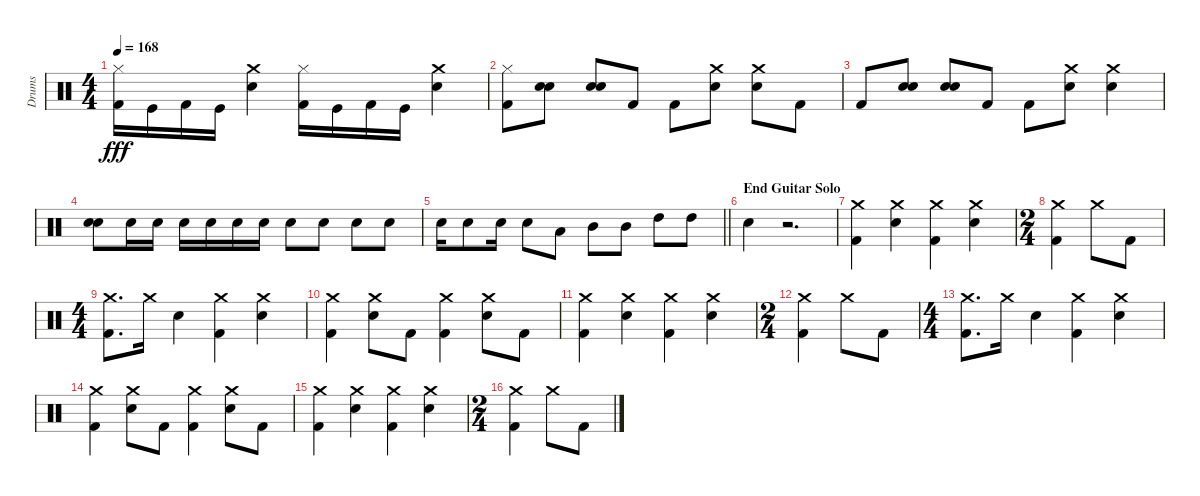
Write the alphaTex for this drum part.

\track ("Drums" "Drums") {instrument percussion}
\staff {score}
\articulation defaults
\ts (4 4)
\tempo 168
\clef neutral
\ks c
("Hi-Hat (closed)" "Kick (hit) 2").16{dy fff} "Kick (hit)".16 "Kick (hit) 2".16 "Kick (hit)".16 ("Crash medium (hit)" "Snare (hit) 2").4 ("Hi-Hat (closed)" "Kick (hit) 2").16 "Kick (hit)".16 "Kick (hit) 2".16 "Kick (hit)".16 ("Crash medium (hit)" "Snare (hit) 2").4 |
("Kick (hit) 2" "Hi-Hat (closed)").8 ("Snare (hit) 2" "Snare (hit) 2").8 ("Snare (hit) 2" "Snare (hit) 2").8 "Kick (hit) 2".8 "Kick (hit) 2".8 ("Snare (hit) 2" "Crash medium (hit)").8 ("Snare (hit) 2" "Crash medium (hit)").8 "Kick (hit) 2".8 |
"Kick (hit) 2".8 ("Snare (hit) 2" "Snare (hit) 2").8 ("Snare (hit) 2" "Snare (hit) 2").8 "Kick (hit) 2".8 "Kick (hit) 2".8 ("Crash medium (hit)" "Snare (hit) 2").8 ("Snare (hit) 2" "Crash medium (hit)").4 |
("Snare (hit) 2" "Snare (hit) 2").8 "Snare (hit) 2".16 "Snare (hit) 2".16 "Snare (hit) 2".16 "Snare (hit) 2".16 "Snare (hit) 2".16 "Snare (hit) 2".16 "Snare (hit) 2".8 "Snare (hit) 2".8 "Snare (hit) 2".8 "Snare (hit) 2".8 |
\barLineRight lightlight "Snare (hit) 2".16 "Snare (hit) 2".8 "Snare (hit) 2".16 "Snare (hit) 2".8 "Low Tom (hit)".8 "Mid Tom (hit)".8 "Mid Tom (hit)".8 "High Tom (hit)".8 "High Tom (hit)".8
|
\section ("" "End Guitar Solo")
"Snare (hit) 2".4 r.2{d} |
("Kick (hit) 2" "Crash medium (hit)").4 ("Snare (hit) 2" "Crash medium (hit)").4 ("Kick (hit) 2" "Crash medium (hit)").4 ("Snare (hit) 2" "Crash medium (hit)").4 |
\ts (2 4)
("Kick (hit) 2" "Crash medium (hit)").4 "Crash medium (hit)".8 "Kick (hit) 2".8 |
\ts (4 4)
("Kick (hit) 2" "Crash medium (hit)").8{d} "Crash medium (hit)".16 "Snare (hit) 2".4 ("Kick (hit) 2" "Crash medium (hit)").4 ("Snare (hit) 2" "Crash medium (hit)").4 |
("Kick (hit) 2" "Crash medium (hit)").4 ("Snare (hit) 2" "Crash medium (hit)").8 "Kick (hit) 2".8 ("Kick (hit) 2" "Crash medium (hit)").4 ("Snare (hit) 2" "Crash medium (hit)").8 "Kick (hit) 2".8 |
("Kick (hit) 2" "Crash medium (hit)").4 ("Snare (hit) 2" "Crash medium (hit)").4 ("Kick (hit) 2" "Crash medium (hit)").4 ("Snare (hit) 2" "Crash medium (hit)").4 |
\ts (2 4)
("Kick (hit) 2" "Crash medium (hit)").4 "Crash medium (hit)".8 "Kick (hit) 2".8 |
\ts (4 4)
("Kick (hit) 2" "Crash medium (hit)").8{d} "Crash medium (hit)".16 "Snare (hit) 2".4 ("Kick (hit) 2" "Crash medium (hit)").4 ("Snare (hit) 2" "Crash medium (hit)").4 |
("Kick (hit) 2" "Crash medium (hit)").4 ("Snare (hit) 2" "Crash medium (hit)").8 "Kick (hit) 2".8 ("Kick (hit) 2" "Crash medium (hit)").4 ("Snare (hit) 2" "Crash medium (hit)").8 "Kick (hit) 2".8 |
("Kick (hit) 2" "Crash medium (hit)").4 ("Snare (hit) 2" "Crash medium (hit)").4 ("Kick (hit) 2" "Crash medium (hit)").4 ("Snare (hit) 2" "Crash medium (hit)").4 |
\ts (2 4)
("Kick (hit) 2" "Crash medium (hit)").4 "Crash medium (hit)".8 "Kick (hit) 2".8
